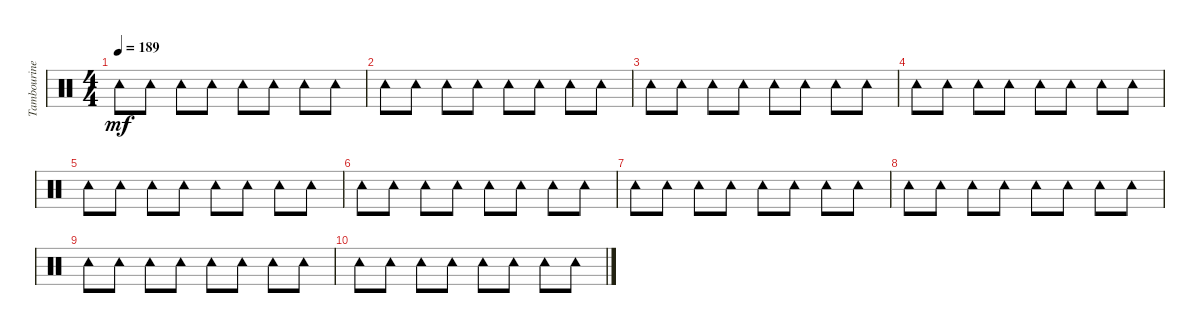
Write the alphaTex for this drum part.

\track ("Tambourine" "Tambourine") {instrument percussion}
\staff {score}
\articulation defaults
\ts (4 4)
\tempo 189
\clef neutral
\ks c "Tambourine (hit)".8{dy mf} "Tambourine (hit)".8 "Tambourine (hit)".8 "Tambourine (hit)".8 "Tambourine (hit)".8 "Tambourine (hit)".8 "Tambourine (hit)".8 "Tambourine (hit)".8
|
"Tambourine (hit)".8 "Tambourine (hit)".8 "Tambourine (hit)".8 "Tambourine (hit)".8 "Tambourine (hit)".8 "Tambourine (hit)".8 "Tambourine (hit)".8 "Tambourine (hit)".8 |
"Tambourine (hit)".8 "Tambourine (hit)".8 "Tambourine (hit)".8 "Tambourine (hit)".8 "Tambourine (hit)".8 "Tambourine (hit)".8 "Tambourine (hit)".8 "Tambourine (hit)".8 |
"Tambourine (hit)".8 "Tambourine (hit)".8 "Tambourine (hit)".8 "Tambourine (hit)".8 "Tambourine (hit)".8 "Tambourine (hit)".8 "Tambourine (hit)".8 "Tambourine (hit)".8 |
"Tambourine (hit)".8 "Tambourine (hit)".8 "Tambourine (hit)".8 "Tambourine (hit)".8 "Tambourine (hit)".8 "Tambourine (hit)".8 "Tambourine (hit)".8 "Tambourine (hit)".8 |
"Tambourine (hit)".8 "Tambourine (hit)".8 "Tambourine (hit)".8 "Tambourine (hit)".8 "Tambourine (hit)".8 "Tambourine (hit)".8 "Tambourine (hit)".8 "Tambourine (hit)".8 |
"Tambourine (hit)".8 "Tambourine (hit)".8 "Tambourine (hit)".8 "Tambourine (hit)".8 "Tambourine (hit)".8 "Tambourine (hit)".8 "Tambourine (hit)".8 "Tambourine (hit)".8 |
"Tambourine (hit)".8 "Tambourine (hit)".8 "Tambourine (hit)".8 "Tambourine (hit)".8 "Tambourine (hit)".8 "Tambourine (hit)".8 "Tambourine (hit)".8 "Tambourine (hit)".8 |
"Tambourine (hit)".8 "Tambourine (hit)".8 "Tambourine (hit)".8 "Tambourine (hit)".8 "Tambourine (hit)".8 "Tambourine (hit)".8 "Tambourine (hit)".8 "Tambourine (hit)".8 |
"Tambourine (hit)".8 "Tambourine (hit)".8 "Tambourine (hit)".8 "Tambourine (hit)".8 "Tambourine (hit)".8 "Tambourine (hit)".8 "Tambourine (hit)".8 "Tambourine (hit)".8
